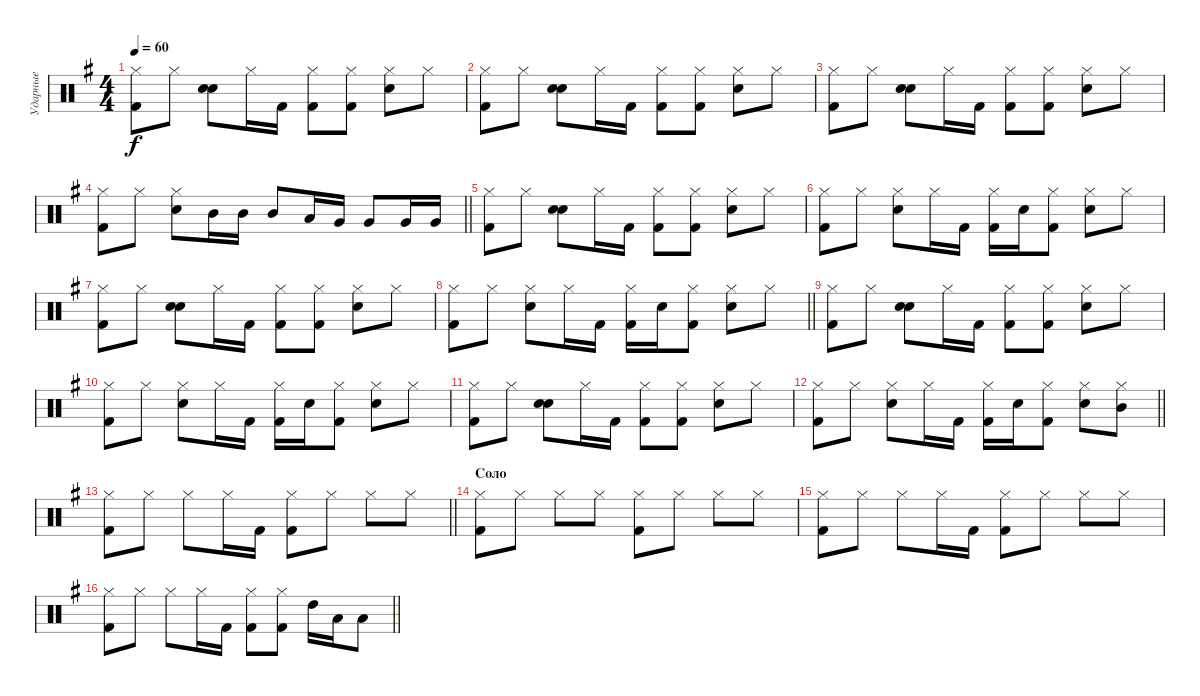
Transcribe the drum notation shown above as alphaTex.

\track ("Ударные" "Ударные") {instrument percussion}
\staff {score}
\articulation defaults
\ts (4 4)
\tempo 60
\clef neutral
\ks g
("Hi-Hat (closed)" "Kick (hit) 2").8{dy f} "Hi-Hat (closed)".8 ("Snare (hit)" "Snare (hit) 2").8 "Hi-Hat (closed)".16 "Kick (hit) 2".16 ("Hi-Hat (closed)" "Kick (hit) 2").8 ("Hi-Hat (closed)" "Kick (hit) 2").8 ("Hi-Hat (closed)" "Snare (hit) 2").8 "Hi-Hat (closed)".8 |
("Hi-Hat (closed)" "Kick (hit) 2").8 "Hi-Hat (closed)".8 ("Snare (hit)" "Snare (hit) 2").8 "Hi-Hat (closed)".16 "Kick (hit) 2".16 ("Hi-Hat (closed)" "Kick (hit) 2").8 ("Hi-Hat (closed)" "Kick (hit) 2").8 ("Hi-Hat (closed)" "Snare (hit) 2").8 "Hi-Hat (closed)".8 |
("Hi-Hat (closed)" "Kick (hit) 2").8 "Hi-Hat (closed)".8 ("Snare (hit)" "Snare (hit) 2").8 "Hi-Hat (closed)".16 "Kick (hit) 2".16 ("Hi-Hat (closed)" "Kick (hit) 2").8 ("Hi-Hat (closed)" "Kick (hit) 2").8 ("Hi-Hat (closed)" "Snare (hit) 2").8 "Hi-Hat (closed)".8 |
\barLineRight lightlight
("Hi-Hat (closed)" "Kick (hit) 2").8 "Hi-Hat (closed)".8 ("Hi-Hat (closed)" "Snare (hit) 2").8 "Mid Tom (hit)".16 "Mid Tom (hit)".16 "Mid Tom (hit)".8 "Low Tom (hit)".16 "Very Low Tom (hit)".16 "Very Low Tom (hit)".8 "Very Low Tom (hit)".16 "Very Low Tom (hit)".16 |
("Hi-Hat (closed)" "Kick (hit) 2").8 "Hi-Hat (closed)".8 ("Snare (hit)" "Snare (hit) 2").8 "Hi-Hat (closed)".16 "Kick (hit) 2".16 ("Hi-Hat (closed)" "Kick (hit) 2").8 ("Hi-Hat (closed)" "Kick (hit) 2").8 ("Hi-Hat (closed)" "Snare (hit) 2").8 "Hi-Hat (closed)".8 |
("Hi-Hat (closed)" "Kick (hit) 2").8 "Hi-Hat (closed)".8 ("Hi-Hat (closed)" "Snare (hit) 2").8 "Hi-Hat (closed)".16 "Kick (hit) 2".16 ("Hi-Hat (closed)" "Kick (hit) 2").16 "Snare (hit) 2".16 ("Hi-Hat (closed)" "Kick (hit) 2").8 ("Hi-Hat (closed)" "Snare (hit) 2").8 "Hi-Hat (closed)".8 |
("Hi-Hat (closed)" "Kick (hit) 2").8 "Hi-Hat (closed)".8 ("Snare (hit)" "Snare (hit) 2").8 "Hi-Hat (closed)".16 "Kick (hit) 2".16 ("Hi-Hat (closed)" "Kick (hit) 2").8 ("Hi-Hat (closed)" "Kick (hit) 2").8 ("Hi-Hat (closed)" "Snare (hit) 2").8 "Hi-Hat (closed)".8 |
\barLineRight lightlight
("Hi-Hat (closed)" "Kick (hit) 2").8 "Hi-Hat (closed)".8 ("Hi-Hat (closed)" "Snare (hit) 2").8 "Hi-Hat (closed)".16 "Kick (hit) 2".16 ("Hi-Hat (closed)" "Kick (hit) 2").16 "Snare (hit) 2".16 ("Hi-Hat (closed)" "Kick (hit) 2").8 ("Hi-Hat (closed)" "Snare (hit) 2").8 "Hi-Hat (closed)".8 |
("Hi-Hat (closed)" "Kick (hit) 2").8 "Hi-Hat (closed)".8 ("Snare (hit)" "Snare (hit) 2").8 "Hi-Hat (closed)".16 "Kick (hit) 2".16 ("Hi-Hat (closed)" "Kick (hit) 2").8 ("Hi-Hat (closed)" "Kick (hit) 2").8 ("Hi-Hat (closed)" "Snare (hit) 2").8 "Hi-Hat (closed)".8 |
("Hi-Hat (closed)" "Kick (hit) 2").8 "Hi-Hat (closed)".8 ("Hi-Hat (closed)" "Snare (hit) 2").8 "Hi-Hat (closed)".16 "Kick (hit) 2".16 ("Hi-Hat (closed)" "Kick (hit) 2").16 "Snare (hit) 2".16 ("Hi-Hat (closed)" "Kick (hit) 2").8 ("Hi-Hat (closed)" "Snare (hit) 2").8 "Hi-Hat (closed)".8 |
("Hi-Hat (closed)" "Kick (hit) 2").8 "Hi-Hat (closed)".8 ("Snare (hit)" "Snare (hit) 2").8 "Hi-Hat (closed)".16 "Kick (hit) 2".16 ("Hi-Hat (closed)" "Kick (hit) 2").8 ("Hi-Hat (closed)" "Kick (hit) 2").8 ("Hi-Hat (closed)" "Snare (hit) 2").8 "Hi-Hat (closed)".8 |
\barLineRight lightlight
("Hi-Hat (closed)" "Kick (hit) 2").8 "Hi-Hat (closed)".8 ("Hi-Hat (closed)" "Snare (hit) 2").8 "Hi-Hat (closed)".16 "Kick (hit) 2".16 ("Hi-Hat (closed)" "Kick (hit) 2").16 "Snare (hit) 2".16 ("Hi-Hat (closed)" "Kick (hit) 2").8 ("Hi-Hat (closed)" "Snare (hit) 2").8 ("Hi-Hat (closed)" "Mid Tom (hit)").8 |
\barLineRight lightlight
("Hi-Hat (closed)" "Kick (hit) 2").8 "Hi-Hat (closed)".8 "Hi-Hat (closed)".8 "Hi-Hat (closed)".16 "Kick (hit) 2".16 ("Hi-Hat (closed)" "Kick (hit) 2").8 "Hi-Hat (closed)".8 "Hi-Hat (closed)".8 "Hi-Hat (closed)".8 |
\section ("" "Соло")
("Hi-Hat (closed)" "Kick (hit) 2").8 "Hi-Hat (closed)".8 "Hi-Hat (closed)".8 "Hi-Hat (closed)".8 ("Hi-Hat (closed)" "Kick (hit) 2").8 "Hi-Hat (closed)".8 "Hi-Hat (closed)".8 "Hi-Hat (closed)".8 |
("Hi-Hat (closed)" "Kick (hit) 2").8 "Hi-Hat (closed)".8 "Hi-Hat (closed)".8 "Hi-Hat (closed)".16 "Kick (hit) 2".16 ("Hi-Hat (closed)" "Kick (hit) 2").8 "Hi-Hat (closed)".8 "Hi-Hat (closed)".8 "Hi-Hat (closed)".8 |
\barLineRight lightlight
("Hi-Hat (closed)" "Kick (hit) 2").8 "Hi-Hat (closed)".8 "Hi-Hat (closed)".8 "Hi-Hat (closed)".16 "Kick (hit) 2".16 ("Hi-Hat (closed)" "Kick (hit) 2").8 ("Hi-Hat (closed)" "Kick (hit) 2").8 "High Tom (hit)".16 "Low Tom (hit)".16 "Low Tom (hit)".8
